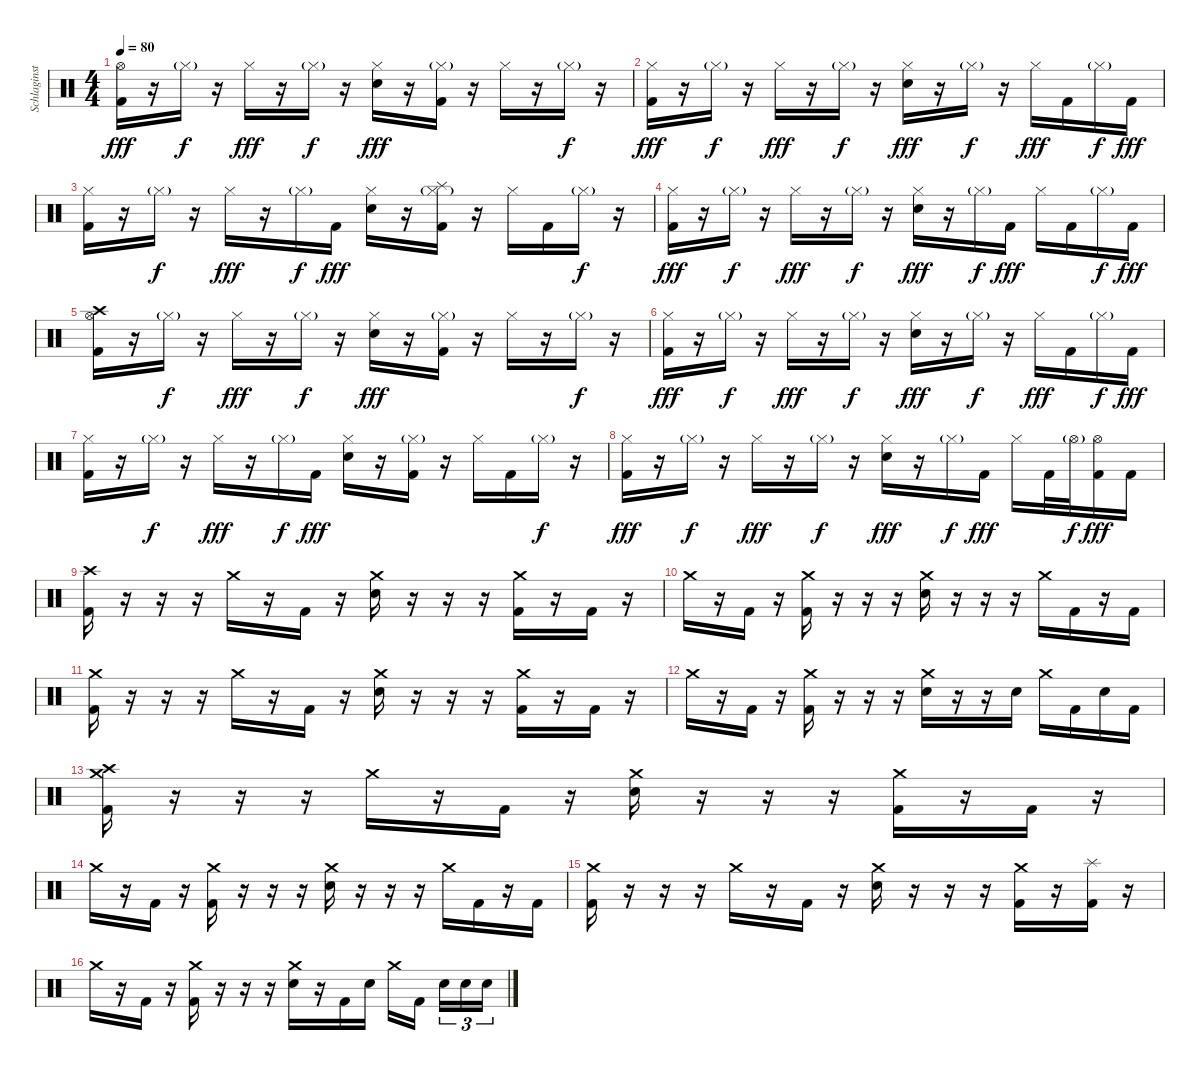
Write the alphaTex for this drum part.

\track ("Schlaginstrumente - Auswahl" "Schlaginst") {instrument percussion}
\staff {score}
\articulation defaults
\ts (4 4)
\tempo 80
\clef neutral
\ks c
("Hi-Hat (open)" "Kick (hit) 2").16{dy fff} r.16 "Hi-Hat (closed)"{g}.16{dy f} r.16 "Hi-Hat (closed)".16{dy fff} r.16 "Hi-Hat (closed)"{g}.16{dy f} r.16 ("Hi-Hat (closed)" "Electric Snare (hit)").16{dy fff} r.16 ("Hi-Hat (closed)"{g} "Kick (hit) 2").16 r.16 "Hi-Hat (closed)".16 r.16 "Hi-Hat (closed)"{g}.16{dy f} r.16 |
("Hi-Hat (closed)" "Kick (hit) 2").16{dy fff} r.16 "Hi-Hat (closed)"{g}.16{dy f} r.16 "Hi-Hat (closed)".16{dy fff} r.16 "Hi-Hat (closed)"{g}.16{dy f} r.16 ("Hi-Hat (closed)" "Electric Snare (hit)").16{dy fff} r.16 "Hi-Hat (closed)"{g}.16{dy f} r.16 "Hi-Hat (closed)".16{dy fff} "Kick (hit) 2".16 "Hi-Hat (closed)"{g}.16{dy f} "Kick (hit) 2".16{dy fff} |
("Hi-Hat (closed)" "Kick (hit) 2").16 r.16 "Hi-Hat (closed)"{g}.16{dy f} r.16 "Hi-Hat (closed)".16{dy fff} r.16 "Hi-Hat (closed)"{g}.16{dy f} "Kick (hit) 2".16{dy fff} ("Hi-Hat (closed)" "Electric Snare (hit)").16 r.16 ("Splash (hit)" "Hi-Hat (closed)"{g} "Kick (hit) 2").16 r.16 "Hi-Hat (closed)".16 "Kick (hit) 2".16 "Hi-Hat (closed)"{g}.16{dy f} r.16 |
("Hi-Hat (closed)" "Kick (hit) 2").16{dy fff} r.16 "Hi-Hat (closed)"{g}.16{dy f} r.16 "Hi-Hat (closed)".16{dy fff} r.16 "Hi-Hat (closed)"{g}.16{dy f} r.16 ("Hi-Hat (closed)" "Electric Snare (hit)").16{dy fff} r.16 "Hi-Hat (closed)"{g}.16{dy f} "Kick (hit) 2".16{dy fff} "Hi-Hat (closed)".16 "Kick (hit) 2".16 "Hi-Hat (closed)"{g}.16{dy f} "Kick (hit) 2".16{dy fff} |
("Crash high (hit)" "Hi-Hat (open)" "Kick (hit) 2").16 r.16 "Hi-Hat (closed)"{g}.16{dy f} r.16 "Hi-Hat (closed)".16{dy fff} r.16 "Hi-Hat (closed)"{g}.16{dy f} r.16 ("Hi-Hat (closed)" "Electric Snare (hit)").16{dy fff} r.16 ("Hi-Hat (closed)"{g} "Kick (hit) 2").16 r.16 "Hi-Hat (closed)".16 r.16 "Hi-Hat (closed)"{g}.16{dy f} r.16 |
("Hi-Hat (closed)" "Kick (hit) 2").16{dy fff} r.16 "Hi-Hat (closed)"{g}.16{dy f} r.16 "Hi-Hat (closed)".16{dy fff} r.16 "Hi-Hat (closed)"{g}.16{dy f} r.16 ("Hi-Hat (closed)" "Electric Snare (hit)").16{dy fff} r.16 "Hi-Hat (closed)"{g}.16{dy f} r.16 "Hi-Hat (closed)".16{dy fff} "Kick (hit) 2".16 "Hi-Hat (closed)"{g}.16{dy f} "Kick (hit) 2".16{dy fff} |
("Hi-Hat (closed)" "Kick (hit) 2").16 r.16 "Hi-Hat (closed)"{g}.16{dy f} r.16 "Hi-Hat (closed)".16{dy fff} r.16 "Hi-Hat (closed)"{g}.16{dy f} "Kick (hit) 2".16{dy fff} ("Hi-Hat (closed)" "Electric Snare (hit)").16 r.16 ("Hi-Hat (closed)"{g} "Kick (hit) 2").16 r.16 "Hi-Hat (closed)".16 "Kick (hit) 2".16 "Hi-Hat (closed)"{g}.16{dy f} r.16 |
("Hi-Hat (closed)" "Kick (hit) 2").16{dy fff} r.16 "Hi-Hat (closed)"{g}.16{dy f} r.16 "Hi-Hat (closed)".16{dy fff} r.16 "Hi-Hat (closed)"{g}.16{dy f} r.16 ("Hi-Hat (closed)" "Electric Snare (hit)").16{dy fff} r.16 "Hi-Hat (closed)"{g}.16{dy f} "Kick (hit) 2".16{dy fff} "Hi-Hat (closed)".16 "Kick (hit) 2".32 "Hi-Hat (open)"{g}.32{dy f} ("Hi-Hat (open)" "Kick (hit) 2").16{dy fff} "Kick (hit) 2".16 |
("Crash high (hit)" "Kick (hit) 2").16 r.16 r.16 r.16 "Crash medium (hit)".16 r.16 "Kick (hit) 2".16 r.16 ("Crash medium (hit)" "Electric Snare (hit)").16 r.16 r.16 r.16 ("Crash medium (hit)" "Kick (hit) 2").16 r.16 "Kick (hit) 2".16 r.16 |
"Crash medium (hit)".16 r.16 "Kick (hit) 2".16 r.16 ("Crash medium (hit)" "Kick (hit) 2").16 r.16 r.16 r.16 ("Crash medium (hit)" "Electric Snare (hit)").16 r.16 r.16 r.16 "Crash medium (hit)".16 "Kick (hit) 2".16 r.16 "Kick (hit) 2".16 |
("Crash medium (hit)" "Kick (hit) 2").16 r.16 r.16 r.16 "Crash medium (hit)".16 r.16 "Kick (hit) 2".16 r.16 ("Crash medium (hit)" "Electric Snare (hit)").16 r.16 r.16 r.16 ("Crash medium (hit)" "Kick (hit) 2").16 r.16 "Kick (hit) 2".16 r.16 |
"Crash medium (hit)".16 r.16 "Kick (hit) 2".16 r.16 ("Crash medium (hit)" "Kick (hit) 2").16 r.16 r.16 r.16 ("Crash medium (hit)" "Electric Snare (hit)").16 r.16 r.16 "Electric Snare (hit)".16 "Crash medium (hit)".16 "Kick (hit) 2".16 "Electric Snare (hit)".16 "Kick (hit) 2".16 |
("Crash high (hit)" "Crash medium (hit)" "Kick (hit) 2").16 r.16 r.16 r.16 "Crash medium (hit)".16 r.16 "Kick (hit) 2".16 r.16 ("Crash medium (hit)" "Electric Snare (hit)").16 r.16 r.16 r.16 ("Crash medium (hit)" "Kick (hit) 2").16 r.16 "Kick (hit) 2".16 r.16 |
"Crash medium (hit)".16 r.16 "Kick (hit) 2".16 r.16 ("Crash medium (hit)" "Kick (hit) 2").16 r.16 r.16 r.16 ("Crash medium (hit)" "Electric Snare (hit)").16 r.16 r.16 r.16 "Crash medium (hit)".16 "Kick (hit) 2".16 r.16 "Kick (hit) 2".16 |
("Crash medium (hit)" "Kick (hit) 2").16 r.16 r.16 r.16 "Crash medium (hit)".16 r.16 "Kick (hit) 2".16 r.16 ("Crash medium (hit)" "Electric Snare (hit)").16 r.16 r.16 r.16 ("Crash medium (hit)" "Kick (hit) 2").16 r.16 ("Splash (hit)" "Kick (hit) 2").16 r.16 |
"Crash medium (hit)".16 r.16 "Kick (hit) 2".16 r.16 ("Crash medium (hit)" "Kick (hit) 2").16 r.16 r.16 r.16 ("Crash medium (hit)" "Electric Snare (hit)").16 r.16 "Kick (hit) 2".16 "Electric Snare (hit)".16 "Crash medium (hit)".16 "Kick (hit) 2".16{beam splitsecondary} "Electric Snare (hit)".16{tu (3 2)} "Electric Snare (hit)".16{tu (3 2)} "Electric Snare (hit)".16{tu (3 2)}
